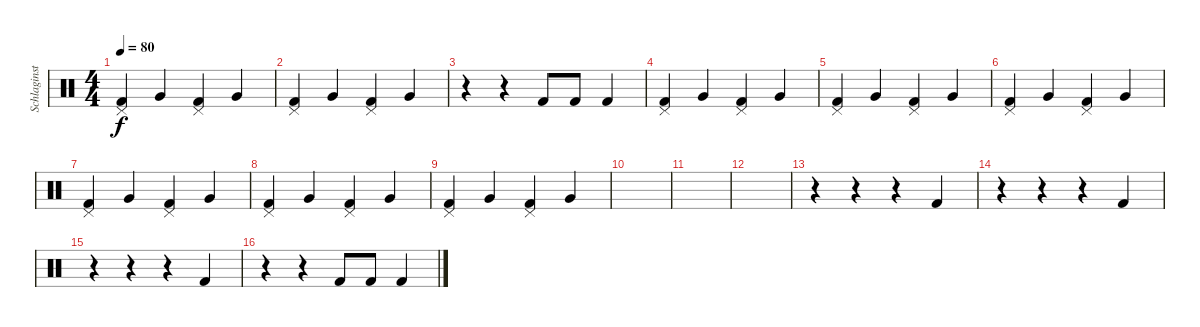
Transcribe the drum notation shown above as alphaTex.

\track ("Schlaginstrumente - Auswahl" "Schlaginst") {instrument percussion}
\staff {score}
\articulation defaults
\ts (4 4)
\tempo 80
\clef neutral
\ks c
("Kick (hit) 2" "Pedal Hi-Hat (hit)").4{dy f} "Very Low Tom (hit)".4 ("Kick (hit) 2" "Pedal Hi-Hat (hit)").4 "Very Low Tom (hit)".4 |
("Kick (hit) 2" "Pedal Hi-Hat (hit)").4 "Very Low Tom (hit)".4 ("Kick (hit) 2" "Pedal Hi-Hat (hit)").4 "Very Low Tom (hit)".4 |
r.4 r.4 "Kick (hit) 2".8 "Kick (hit) 2".8 "Kick (hit) 2".4 |
("Kick (hit) 2" "Pedal Hi-Hat (hit)").4 "Very Low Tom (hit)".4 ("Kick (hit) 2" "Pedal Hi-Hat (hit)").4 "Very Low Tom (hit)".4 |
("Kick (hit) 2" "Pedal Hi-Hat (hit)").4 "Very Low Tom (hit)".4 ("Kick (hit) 2" "Pedal Hi-Hat (hit)").4 "Very Low Tom (hit)".4 |
("Kick (hit) 2" "Pedal Hi-Hat (hit)").4 "Very Low Tom (hit)".4 ("Kick (hit) 2" "Pedal Hi-Hat (hit)").4 "Very Low Tom (hit)".4 |
("Kick (hit) 2" "Pedal Hi-Hat (hit)").4 "Very Low Tom (hit)".4 ("Kick (hit) 2" "Pedal Hi-Hat (hit)").4 "Very Low Tom (hit)".4 |
("Kick (hit) 2" "Pedal Hi-Hat (hit)").4 "Very Low Tom (hit)".4 ("Kick (hit) 2" "Pedal Hi-Hat (hit)").4 "Very Low Tom (hit)".4 |
("Kick (hit) 2" "Pedal Hi-Hat (hit)").4 "Very Low Tom (hit)".4 ("Kick (hit) 2" "Pedal Hi-Hat (hit)").4 "Very Low Tom (hit)".4 |
|
|
|
r.4 r.4 r.4 "Kick (hit) 2".4 |
r.4 r.4 r.4 "Kick (hit) 2".4 |
r.4 r.4 r.4 "Kick (hit) 2".4 |
r.4 r.4 "Kick (hit) 2".8 "Kick (hit) 2".8 "Kick (hit) 2".4
